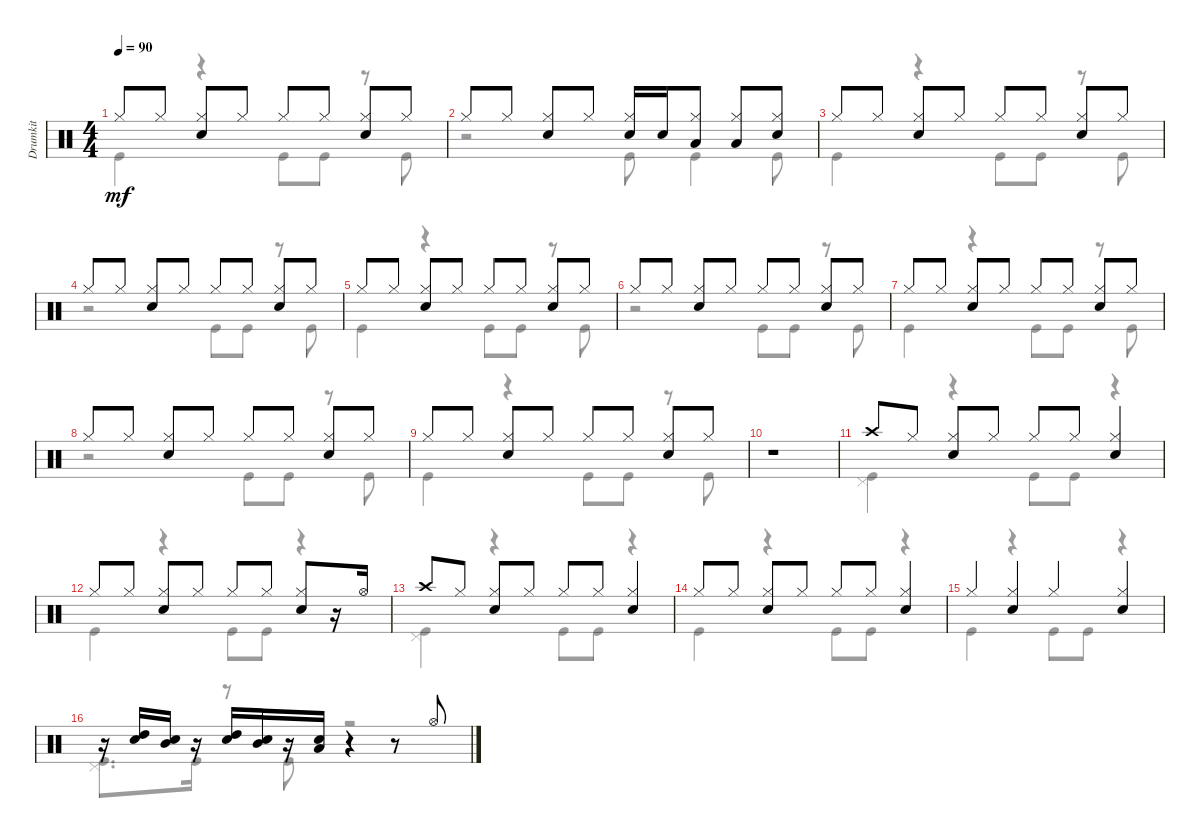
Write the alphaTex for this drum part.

\track ("Drumkit" "Drumkit") {instrument percussion}
\staff {score}
\articulation defaults
\voice
\ts (4 4)
\tempo 90
\clef neutral
\ks c "Hi-Hat (closed)".8{dy mf} "Hi-Hat (closed)".8
("Snare (hit) 2" "Hi-Hat (closed)").8 "Hi-Hat (closed)".8 "Hi-Hat (closed)".8 "Hi-Hat (closed)".8 ("Snare (hit) 2" "Hi-Hat (closed)").8 "Hi-Hat (closed)".8 |
"Hi-Hat (closed)".8 "Hi-Hat (closed)".8 ("Snare (hit) 2" "Hi-Hat (closed)").8 "Hi-Hat (closed)".8 ("Snare (hit) 2" "Hi-Hat (closed)").16 "Snare (hit) 2".16 ("Low Tom (hit)" "Hi-Hat (closed)").8 ("Low Floor Tom (hit)" "Hi-Hat (closed)").8 ("Snare (hit) 2" "Hi-Hat (closed)").8 |
"Hi-Hat (closed)".8 "Hi-Hat (closed)".8 ("Snare (hit) 2" "Hi-Hat (closed)").8 "Hi-Hat (closed)".8 "Hi-Hat (closed)".8 "Hi-Hat (closed)".8 ("Snare (hit) 2" "Hi-Hat (closed)").8 "Hi-Hat (closed)".8 |
"Hi-Hat (closed)".8 "Hi-Hat (closed)".8 ("Snare (hit) 2" "Hi-Hat (closed)").8 "Hi-Hat (closed)".8 "Hi-Hat (closed)".8 "Hi-Hat (closed)".8 ("Snare (hit) 2" "Hi-Hat (closed)").8 "Hi-Hat (closed)".8 |
"Hi-Hat (closed)".8 "Hi-Hat (closed)".8 ("Snare (hit) 2" "Hi-Hat (closed)").8 "Hi-Hat (closed)".8 "Hi-Hat (closed)".8 "Hi-Hat (closed)".8 ("Snare (hit) 2" "Hi-Hat (closed)").8 "Hi-Hat (closed)".8 |
"Hi-Hat (closed)".8 "Hi-Hat (closed)".8 ("Snare (hit) 2" "Hi-Hat (closed)").8 "Hi-Hat (closed)".8 "Hi-Hat (closed)".8 "Hi-Hat (closed)".8 ("Snare (hit) 2" "Hi-Hat (closed)").8 "Hi-Hat (closed)".8 |
"Hi-Hat (closed)".8 "Hi-Hat (closed)".8 ("Snare (hit) 2" "Hi-Hat (closed)").8 "Hi-Hat (closed)".8 "Hi-Hat (closed)".8 "Hi-Hat (closed)".8 ("Snare (hit) 2" "Hi-Hat (closed)").8 "Hi-Hat (closed)".8 |
"Hi-Hat (closed)".8 "Hi-Hat (closed)".8 ("Snare (hit) 2" "Hi-Hat (closed)").8 "Hi-Hat (closed)".8 "Hi-Hat (closed)".8 "Hi-Hat (closed)".8 ("Snare (hit) 2" "Hi-Hat (closed)").8 "Hi-Hat (closed)".8 |
"Hi-Hat (closed)".8 "Hi-Hat (closed)".8 ("Snare (hit) 2" "Hi-Hat (closed)").8 "Hi-Hat (closed)".8 "Hi-Hat (closed)".8 "Hi-Hat (closed)".8 ("Snare (hit) 2" "Hi-Hat (closed)").8 "Hi-Hat (closed)".8 |
r.1 |
"Crash high (hit)".8 "Hi-Hat (closed)".8 ("Snare (hit) 2" "Hi-Hat (closed)").8 "Hi-Hat (closed)".8 "Hi-Hat (closed)".8 "Hi-Hat (closed)".8 ("Snare (hit) 2" "Hi-Hat (closed)").4 |
"Hi-Hat (closed)".8 "Hi-Hat (closed)".8 ("Snare (hit) 2" "Hi-Hat (closed)").8 "Hi-Hat (closed)".8 "Hi-Hat (closed)".8 "Hi-Hat (closed)".8 ("Snare (hit) 2" "Hi-Hat (closed)").8 r.16 "Hi-Hat (open)".16 |
"Crash high (hit)".8 "Hi-Hat (closed)".8 ("Snare (hit) 2" "Hi-Hat (closed)").8 "Hi-Hat (closed)".8 "Hi-Hat (closed)".8 "Hi-Hat (closed)".8 ("Snare (hit) 2" "Hi-Hat (closed)").4 |
"Hi-Hat (closed)".8 "Hi-Hat (closed)".8 ("Snare (hit) 2" "Hi-Hat (closed)").8 "Hi-Hat (closed)".8 "Hi-Hat (closed)".8 "Hi-Hat (closed)".8 ("Snare (hit) 2" "Hi-Hat (closed)").4 |
"Hi-Hat (closed)".4 ("Snare (hit) 2" "Hi-Hat (closed)").4 "Hi-Hat (closed)".4 ("Snare (hit) 2" "Hi-Hat (closed)").4 |
r.16 ("Snare (hit) 2" "High Tom (hit)").16 ("Snare (hit) 2" "Mid Tom (hit)").16 r.16 ("Snare (hit) 2" "High Tom (hit)").16 ("Snare (hit) 2" "Mid Tom (hit)").16 r.16 ("Snare (hit) 2" "Low Tom (hit)").16 r.4 r.8 "Hi-Hat (open)".8
\voice
\clef neutral
\ottava regular
\simile none
\ks c "Kick (hit)".4{dy mf}
r.4 "Kick (hit)".8 "Kick (hit)".8 r.8 "Kick (hit)".8 |
r.2 "Kick (hit)".8 "Kick (hit)".4 "Kick (hit)".8 |
"Kick (hit)".4 r.4 "Kick (hit)".8 "Kick (hit)".8 r.8 "Kick (hit)".8 |
r.2 "Kick (hit)".8 "Kick (hit)".8 r.8 "Kick (hit)".8 |
"Kick (hit)".4 r.4 "Kick (hit)".8 "Kick (hit)".8 r.8 "Kick (hit)".8 |
r.2 "Kick (hit)".8 "Kick (hit)".8 r.8 "Kick (hit)".8 |
"Kick (hit)".4 r.4 "Kick (hit)".8 "Kick (hit)".8 r.8 "Kick (hit)".8 |
r.2 "Kick (hit)".8 "Kick (hit)".8 r.8 "Kick (hit)".8 |
"Kick (hit)".4 r.4 "Kick (hit)".8 "Kick (hit)".8 r.8 "Kick (hit)".8 |
|
("Pedal Hi-Hat (hit)" "Kick (hit)").4 r.4 "Kick (hit)".8 "Kick (hit)".8 r.4 |
"Kick (hit)".4 r.4 "Kick (hit)".8 "Kick (hit)".8 r.4 |
("Pedal Hi-Hat (hit)" "Kick (hit)").4 r.4 "Kick (hit)".8 "Kick (hit)".8 r.4 |
"Kick (hit)".4 r.4 "Kick (hit)".8 "Kick (hit)".8 r.4 |
"Kick (hit)".4 r.4 "Kick (hit)".8 "Kick (hit)".8 r.4 |
("Pedal Hi-Hat (hit)" "Kick (hit)").8{d} "Kick (hit)".16 r.8 "Kick (hit)".8 r.2
